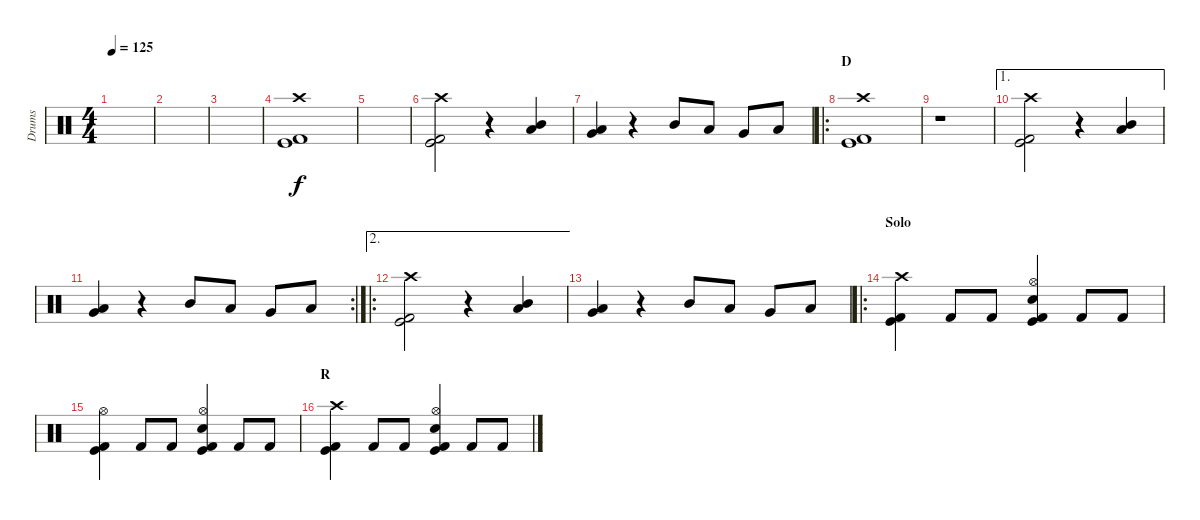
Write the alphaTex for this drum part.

\track ("Drums" "Drums") {instrument percussion}
\staff {score}
\articulation defaults
\ts (4 4)
\tempo 125
\clef neutral
\ks c
|
|
|
("Crash high (hit)" "Kick (hit)" "Kick (hit) 2").1 |
|
("Crash high (hit)" "Kick (hit)" "Kick (hit) 2").2 r.4 ("Mid Tom (hit)" "Low Tom (hit)").4 |
("Low Tom (hit)" "Very Low Tom (hit)").4 r.4 "Mid Tom (hit)".8 "Low Tom (hit)".8 "Very Low Tom (hit)".8 "Low Floor Tom (hit)".8 |
\ro
\section ("" "D")
("Crash high (hit)" "Kick (hit)" "Kick (hit) 2").1 |
r.1 |
\ae 1
("Crash high (hit)" "Kick (hit)" "Kick (hit) 2").2 r.4 ("Mid Tom (hit)" "Low Tom (hit)").4 |
\rc 2
("Low Tom (hit)" "Very Low Tom (hit)").4 r.4 "Mid Tom (hit)".8 "Low Tom (hit)".8 "Very Low Tom (hit)".8 "Low Floor Tom (hit)".8 |
\ae 2
\ro
("Crash high (hit)" "Kick (hit)" "Kick (hit) 2").2 r.4 ("Mid Tom (hit)" "Low Tom (hit)").4 |
("Low Tom (hit)" "Very Low Tom (hit)").4 r.4 "Mid Tom (hit)".8 "Low Tom (hit)".8 "Very Low Tom (hit)".8 "Low Floor Tom (hit)".8 |
\ro
\section ("" "Solo")
("Crash high (hit)" "Kick (hit)" "Kick (hit) 2").4 "Kick (hit) 2".8 "Kick (hit) 2".8 ("Hi-Hat (open)" "Electric Snare (hit)" "Kick (hit)" "Kick (hit) 2").4 "Kick (hit) 2".8 "Kick (hit) 2".8 |
("Hi-Hat (open)" "Kick (hit)" "Kick (hit) 2").4 "Kick (hit) 2".8 "Kick (hit) 2".8 ("Hi-Hat (open)" "Electric Snare (hit)" "Kick (hit)" "Kick (hit) 2").4 "Kick (hit) 2".8 "Kick (hit) 2".8 |
\section ("" "R")
("Crash high (hit)" "Kick (hit)" "Kick (hit) 2").4 "Kick (hit) 2".8 "Kick (hit) 2".8 ("Hi-Hat (open)" "Electric Snare (hit)" "Kick (hit)" "Kick (hit) 2").4 "Kick (hit) 2".8 "Kick (hit) 2".8
